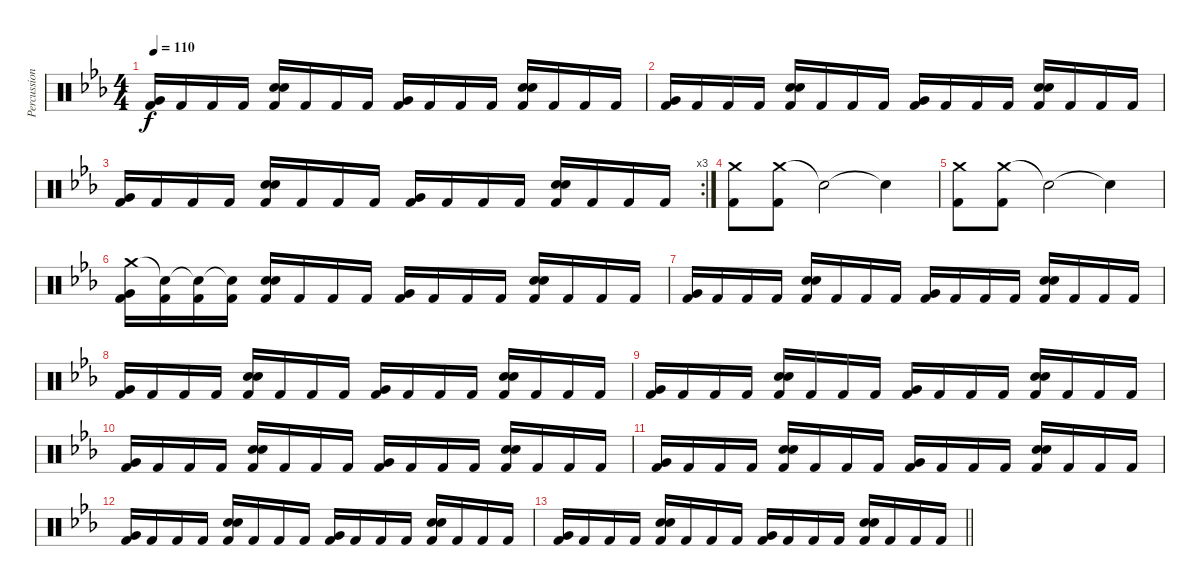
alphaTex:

\track ("Percussions" "Percussion") {instrument percussion}
\staff {score}
\articulation defaults
\ts (4 4)
\tempo 110
\clef neutral
\ks cminor
("Very Low Tom (hit)" "Kick (hit) 2").16{dy f} "Kick (hit) 2".16 "Kick (hit) 2".16 "Kick (hit) 2".16 ("Electric Snare (hit)" "Electric Snare (hit)" "Kick (hit) 2").16 "Kick (hit) 2".16 "Kick (hit) 2".16 "Kick (hit) 2".16 ("Very Low Tom (hit)" "Kick (hit) 2").16 "Kick (hit) 2".16 "Kick (hit) 2".16 "Kick (hit) 2".16 ("Electric Snare (hit)" "Electric Snare (hit)" "Kick (hit) 2").16 "Kick (hit) 2".16 "Kick (hit) 2".16 "Kick (hit) 2".16 |
("Very Low Tom (hit)" "Kick (hit) 2").16 "Kick (hit) 2".16 "Kick (hit) 2".16 "Kick (hit) 2".16 ("Electric Snare (hit)" "Electric Snare (hit)" "Kick (hit) 2").16 "Kick (hit) 2".16 "Kick (hit) 2".16 "Kick (hit) 2".16 ("Very Low Tom (hit)" "Kick (hit) 2").16 "Kick (hit) 2".16 "Kick (hit) 2".16 "Kick (hit) 2".16 ("Electric Snare (hit)" "Electric Snare (hit)" "Kick (hit) 2").16 "Kick (hit) 2".16 "Kick (hit) 2".16 "Kick (hit) 2".16 |
\rc 3
("Very Low Tom (hit)" "Kick (hit) 2").16 "Kick (hit) 2".16 "Kick (hit) 2".16 "Kick (hit) 2".16 ("Electric Snare (hit)" "Electric Snare (hit)" "Kick (hit) 2").16 "Kick (hit) 2".16 "Kick (hit) 2".16 "Kick (hit) 2".16 ("Very Low Tom (hit)" "Kick (hit) 2").16 "Kick (hit) 2".16 "Kick (hit) 2".16 "Kick (hit) 2".16 ("Electric Snare (hit)" "Electric Snare (hit)" "Kick (hit) 2").16 "Kick (hit) 2".16 "Kick (hit) 2".16 "Kick (hit) 2".16 |
("Crash medium (hit)" "Kick (hit) 2").8 ("Crash medium (hit)" "Kick (hit) 2").8 "Snare (hit)"{t}.2 "Snare (hit)"{t}.4 |
("Crash medium (hit)" "Kick (hit) 2").8 ("Crash medium (hit)" "Kick (hit) 2").8 "Snare (hit)"{t}.2 "Snare (hit)"{t}.4 |
("Crash medium (hit)" "Very Low Tom (hit)" "Kick (hit) 2").16 ("Snare (hit)"{t} "Kick (hit) 2").16 ("Snare (hit)"{t} "Kick (hit) 2").16 ("Snare (hit)"{t} "Kick (hit) 2").16 ("Electric Snare (hit)" "Electric Snare (hit)" "Kick (hit) 2").16 "Kick (hit) 2".16 "Kick (hit) 2".16 "Kick (hit) 2".16 ("Very Low Tom (hit)" "Kick (hit) 2").16 "Kick (hit) 2".16 "Kick (hit) 2".16 "Kick (hit) 2".16 ("Electric Snare (hit)" "Electric Snare (hit)" "Kick (hit) 2").16 "Kick (hit) 2".16 "Kick (hit) 2".16 "Kick (hit) 2".16 |
("Very Low Tom (hit)" "Kick (hit) 2").16 "Kick (hit) 2".16 "Kick (hit) 2".16 "Kick (hit) 2".16 ("Electric Snare (hit)" "Electric Snare (hit)" "Kick (hit) 2").16 "Kick (hit) 2".16 "Kick (hit) 2".16 "Kick (hit) 2".16 ("Very Low Tom (hit)" "Kick (hit) 2").16 "Kick (hit) 2".16 "Kick (hit) 2".16 "Kick (hit) 2".16 ("Electric Snare (hit)" "Electric Snare (hit)" "Kick (hit) 2").16 "Kick (hit) 2".16 "Kick (hit) 2".16 "Kick (hit) 2".16 |
("Very Low Tom (hit)" "Kick (hit) 2").16 "Kick (hit) 2".16 "Kick (hit) 2".16 "Kick (hit) 2".16 ("Electric Snare (hit)" "Electric Snare (hit)" "Kick (hit) 2").16 "Kick (hit) 2".16 "Kick (hit) 2".16 "Kick (hit) 2".16 ("Very Low Tom (hit)" "Kick (hit) 2").16 "Kick (hit) 2".16 "Kick (hit) 2".16 "Kick (hit) 2".16 ("Electric Snare (hit)" "Electric Snare (hit)" "Kick (hit) 2").16 "Kick (hit) 2".16 "Kick (hit) 2".16 "Kick (hit) 2".16 |
("Very Low Tom (hit)" "Kick (hit) 2").16 "Kick (hit) 2".16 "Kick (hit) 2".16 "Kick (hit) 2".16 ("Electric Snare (hit)" "Electric Snare (hit)" "Kick (hit) 2").16 "Kick (hit) 2".16 "Kick (hit) 2".16 "Kick (hit) 2".16 ("Very Low Tom (hit)" "Kick (hit) 2").16 "Kick (hit) 2".16 "Kick (hit) 2".16 "Kick (hit) 2".16 ("Electric Snare (hit)" "Electric Snare (hit)" "Kick (hit) 2").16 "Kick (hit) 2".16 "Kick (hit) 2".16 "Kick (hit) 2".16 |
("Very Low Tom (hit)" "Kick (hit) 2").16 "Kick (hit) 2".16 "Kick (hit) 2".16 "Kick (hit) 2".16 ("Electric Snare (hit)" "Electric Snare (hit)" "Kick (hit) 2").16 "Kick (hit) 2".16 "Kick (hit) 2".16 "Kick (hit) 2".16 ("Very Low Tom (hit)" "Kick (hit) 2").16 "Kick (hit) 2".16 "Kick (hit) 2".16 "Kick (hit) 2".16 ("Electric Snare (hit)" "Electric Snare (hit)" "Kick (hit) 2").16 "Kick (hit) 2".16 "Kick (hit) 2".16 "Kick (hit) 2".16 |
("Very Low Tom (hit)" "Kick (hit) 2").16 "Kick (hit) 2".16 "Kick (hit) 2".16 "Kick (hit) 2".16 ("Electric Snare (hit)" "Electric Snare (hit)" "Kick (hit) 2").16 "Kick (hit) 2".16 "Kick (hit) 2".16 "Kick (hit) 2".16 ("Very Low Tom (hit)" "Kick (hit) 2").16 "Kick (hit) 2".16 "Kick (hit) 2".16 "Kick (hit) 2".16 ("Electric Snare (hit)" "Electric Snare (hit)" "Kick (hit) 2").16 "Kick (hit) 2".16 "Kick (hit) 2".16 "Kick (hit) 2".16 |
("Very Low Tom (hit)" "Kick (hit) 2").16 "Kick (hit) 2".16 "Kick (hit) 2".16 "Kick (hit) 2".16 ("Electric Snare (hit)" "Electric Snare (hit)" "Kick (hit) 2").16 "Kick (hit) 2".16 "Kick (hit) 2".16 "Kick (hit) 2".16 ("Very Low Tom (hit)" "Kick (hit) 2").16 "Kick (hit) 2".16 "Kick (hit) 2".16 "Kick (hit) 2".16 ("Electric Snare (hit)" "Electric Snare (hit)" "Kick (hit) 2").16 "Kick (hit) 2".16 "Kick (hit) 2".16 "Kick (hit) 2".16 |
\barLineRight lightlight
("Very Low Tom (hit)" "Kick (hit) 2").16 "Kick (hit) 2".16 "Kick (hit) 2".16 "Kick (hit) 2".16 ("Electric Snare (hit)" "Electric Snare (hit)" "Kick (hit) 2").16 "Kick (hit) 2".16 "Kick (hit) 2".16 "Kick (hit) 2".16 ("Very Low Tom (hit)" "Kick (hit) 2").16 "Kick (hit) 2".16 "Kick (hit) 2".16 "Kick (hit) 2".16 ("Electric Snare (hit)" "Electric Snare (hit)" "Kick (hit) 2").16 "Kick (hit) 2".16 "Kick (hit) 2".16 "Kick (hit) 2".16
